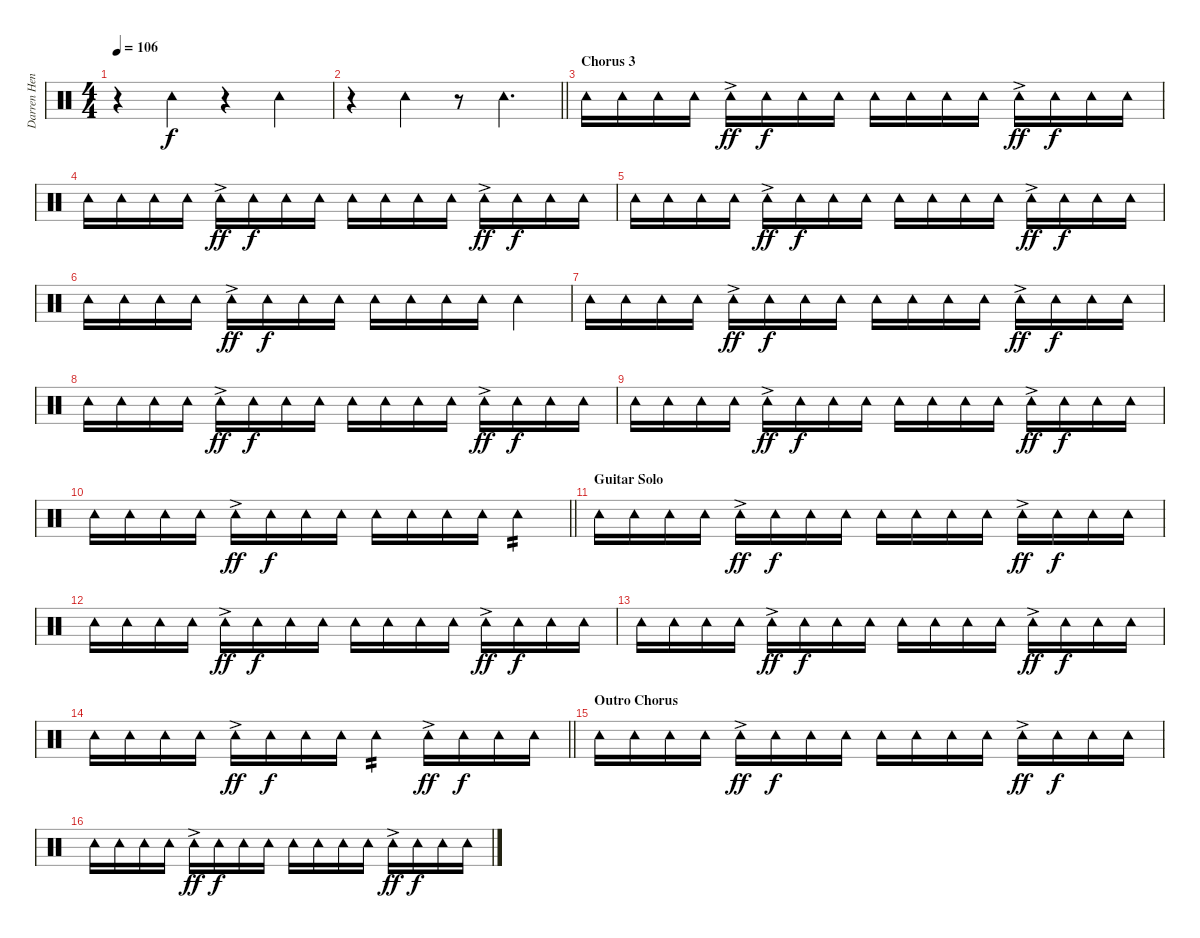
\track ("Darren Henley [Percussion]" "Darren Hen") {instrument percussion}
\staff {score}
\articulation defaults
\ts (4 4)
\tempo 106
\clef neutral
\ks c
r.4{dy f} "Tambourine (hit)".4 r.4 "Tambourine (hit)".4 |
\barLineRight lightlight
r.4 "Tambourine (hit)".4 r.8 "Tambourine (hit)".4{d} |
\section ("" "Chorus 3")
"Tambourine (hit)".16 "Tambourine (hit)".16 "Tambourine (hit)".16 "Tambourine (hit)".16 "Tambourine (hit)"{ac}.16{dy ff} "Tambourine (hit)".16{dy f} "Tambourine (hit)".16 "Tambourine (hit)".16 "Tambourine (hit)".16 "Tambourine (hit)".16 "Tambourine (hit)".16 "Tambourine (hit)".16 "Tambourine (hit)"{ac}.16{dy ff} "Tambourine (hit)".16{dy f} "Tambourine (hit)".16 "Tambourine (hit)".16 |
"Tambourine (hit)".16 "Tambourine (hit)".16 "Tambourine (hit)".16 "Tambourine (hit)".16 "Tambourine (hit)"{ac}.16{dy ff} "Tambourine (hit)".16{dy f} "Tambourine (hit)".16 "Tambourine (hit)".16 "Tambourine (hit)".16 "Tambourine (hit)".16 "Tambourine (hit)".16 "Tambourine (hit)".16 "Tambourine (hit)"{ac}.16{dy ff} "Tambourine (hit)".16{dy f} "Tambourine (hit)".16 "Tambourine (hit)".16 |
"Tambourine (hit)".16 "Tambourine (hit)".16 "Tambourine (hit)".16 "Tambourine (hit)".16 "Tambourine (hit)"{ac}.16{dy ff} "Tambourine (hit)".16{dy f} "Tambourine (hit)".16 "Tambourine (hit)".16 "Tambourine (hit)".16 "Tambourine (hit)".16 "Tambourine (hit)".16 "Tambourine (hit)".16 "Tambourine (hit)"{ac}.16{dy ff} "Tambourine (hit)".16{dy f} "Tambourine (hit)".16 "Tambourine (hit)".16 |
"Tambourine (hit)".16 "Tambourine (hit)".16 "Tambourine (hit)".16 "Tambourine (hit)".16 "Tambourine (hit)"{ac}.16{dy ff} "Tambourine (hit)".16{dy f} "Tambourine (hit)".16 "Tambourine (hit)".16 "Tambourine (hit)".16 "Tambourine (hit)".16 "Tambourine (hit)".16 "Tambourine (hit)".16 "Tambourine (hit)".4 |
"Tambourine (hit)".16 "Tambourine (hit)".16 "Tambourine (hit)".16 "Tambourine (hit)".16 "Tambourine (hit)"{ac}.16{dy ff} "Tambourine (hit)".16{dy f} "Tambourine (hit)".16 "Tambourine (hit)".16 "Tambourine (hit)".16 "Tambourine (hit)".16 "Tambourine (hit)".16 "Tambourine (hit)".16 "Tambourine (hit)"{ac}.16{dy ff} "Tambourine (hit)".16{dy f} "Tambourine (hit)".16 "Tambourine (hit)".16 |
"Tambourine (hit)".16 "Tambourine (hit)".16 "Tambourine (hit)".16 "Tambourine (hit)".16 "Tambourine (hit)"{ac}.16{dy ff} "Tambourine (hit)".16{dy f} "Tambourine (hit)".16 "Tambourine (hit)".16 "Tambourine (hit)".16 "Tambourine (hit)".16 "Tambourine (hit)".16 "Tambourine (hit)".16 "Tambourine (hit)"{ac}.16{dy ff} "Tambourine (hit)".16{dy f} "Tambourine (hit)".16 "Tambourine (hit)".16 |
"Tambourine (hit)".16 "Tambourine (hit)".16 "Tambourine (hit)".16 "Tambourine (hit)".16 "Tambourine (hit)"{ac}.16{dy ff} "Tambourine (hit)".16{dy f} "Tambourine (hit)".16 "Tambourine (hit)".16 "Tambourine (hit)".16 "Tambourine (hit)".16 "Tambourine (hit)".16 "Tambourine (hit)".16 "Tambourine (hit)"{ac}.16{dy ff} "Tambourine (hit)".16{dy f} "Tambourine (hit)".16 "Tambourine (hit)".16 |
\barLineRight lightlight "Tambourine (hit)".16 "Tambourine (hit)".16 "Tambourine (hit)".16 "Tambourine (hit)".16 "Tambourine (hit)"{ac}.16{dy ff} "Tambourine (hit)".16{dy f} "Tambourine (hit)".16 "Tambourine (hit)".16 "Tambourine (hit)".16 "Tambourine (hit)".16 "Tambourine (hit)".16 "Tambourine (hit)".16 "Tambourine (hit)".4{tp 2}
|
\section ("" "Guitar Solo")
"Tambourine (hit)".16 "Tambourine (hit)".16 "Tambourine (hit)".16 "Tambourine (hit)".16 "Tambourine (hit)"{ac}.16{dy ff} "Tambourine (hit)".16{dy f} "Tambourine (hit)".16 "Tambourine (hit)".16 "Tambourine (hit)".16 "Tambourine (hit)".16 "Tambourine (hit)".16 "Tambourine (hit)".16 "Tambourine (hit)"{ac}.16{dy ff} "Tambourine (hit)".16{dy f} "Tambourine (hit)".16 "Tambourine (hit)".16 |
"Tambourine (hit)".16 "Tambourine (hit)".16 "Tambourine (hit)".16 "Tambourine (hit)".16 "Tambourine (hit)"{ac}.16{dy ff} "Tambourine (hit)".16{dy f} "Tambourine (hit)".16 "Tambourine (hit)".16 "Tambourine (hit)".16 "Tambourine (hit)".16 "Tambourine (hit)".16 "Tambourine (hit)".16 "Tambourine (hit)"{ac}.16{dy ff} "Tambourine (hit)".16{dy f} "Tambourine (hit)".16 "Tambourine (hit)".16 |
"Tambourine (hit)".16 "Tambourine (hit)".16 "Tambourine (hit)".16 "Tambourine (hit)".16 "Tambourine (hit)"{ac}.16{dy ff} "Tambourine (hit)".16{dy f} "Tambourine (hit)".16 "Tambourine (hit)".16 "Tambourine (hit)".16 "Tambourine (hit)".16 "Tambourine (hit)".16 "Tambourine (hit)".16 "Tambourine (hit)"{ac}.16{dy ff} "Tambourine (hit)".16{dy f} "Tambourine (hit)".16 "Tambourine (hit)".16 |
\barLineRight lightlight "Tambourine (hit)".16 "Tambourine (hit)".16 "Tambourine (hit)".16 "Tambourine (hit)".16 "Tambourine (hit)"{ac}.16{dy ff} "Tambourine (hit)".16{dy f} "Tambourine (hit)".16 "Tambourine (hit)".16 "Tambourine (hit)".4{tp 2} "Tambourine (hit)"{ac}.16{dy ff} "Tambourine (hit)".16{dy f} "Tambourine (hit)".16 "Tambourine (hit)".16
|
\section ("" "Outro Chorus")
"Tambourine (hit)".16 "Tambourine (hit)".16 "Tambourine (hit)".16 "Tambourine (hit)".16 "Tambourine (hit)"{ac}.16{dy ff} "Tambourine (hit)".16{dy f} "Tambourine (hit)".16 "Tambourine (hit)".16 "Tambourine (hit)".16 "Tambourine (hit)".16 "Tambourine (hit)".16 "Tambourine (hit)".16 "Tambourine (hit)"{ac}.16{dy ff} "Tambourine (hit)".16{dy f} "Tambourine (hit)".16 "Tambourine (hit)".16 |
"Tambourine (hit)".16 "Tambourine (hit)".16 "Tambourine (hit)".16 "Tambourine (hit)".16 "Tambourine (hit)"{ac}.16{dy ff} "Tambourine (hit)".16{dy f} "Tambourine (hit)".16 "Tambourine (hit)".16 "Tambourine (hit)".16 "Tambourine (hit)".16 "Tambourine (hit)".16 "Tambourine (hit)".16 "Tambourine (hit)"{ac}.16{dy ff} "Tambourine (hit)".16{dy f} "Tambourine (hit)".16 "Tambourine (hit)".16
